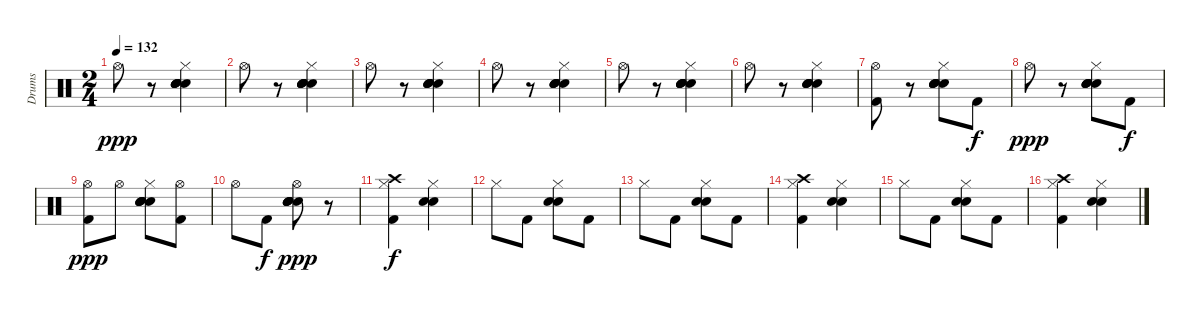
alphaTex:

\track ("Drums" "Drums") {instrument percussion}
\staff {score}
\articulation defaults
\ts (2 4)
\tempo 132
\clef neutral
\ks c "Hi-Hat (open)".8{dy ppp}
r.8 ("Hand Clap (hit)" "Hand Clap (hit)" "Hand Clap (hit)" "Hand Clap (hit)" "Hand Clap (hit)" "Hi-Hat (closed)").4{bd 60} |
"Hi-Hat (open)".8 r.8 ("Hand Clap (hit)" "Hand Clap (hit)" "Hand Clap (hit)" "Hand Clap (hit)" "Hand Clap (hit)" "Hi-Hat (closed)").4{bd 60} |
"Hi-Hat (open)".8 r.8 ("Hand Clap (hit)" "Hand Clap (hit)" "Hand Clap (hit)" "Hand Clap (hit)" "Hand Clap (hit)" "Hi-Hat (closed)").4{bd 60} |
"Hi-Hat (open)".8 r.8 ("Hand Clap (hit)" "Hand Clap (hit)" "Hand Clap (hit)" "Hand Clap (hit)" "Hand Clap (hit)" "Hi-Hat (closed)").4{bd 60} |
"Hi-Hat (open)".8 r.8 ("Hand Clap (hit)" "Hand Clap (hit)" "Hand Clap (hit)" "Hand Clap (hit)" "Hand Clap (hit)" "Hi-Hat (closed)").4{bd 60} |
"Hi-Hat (open)".8 r.8 ("Hand Clap (hit)" "Hand Clap (hit)" "Hand Clap (hit)" "Hand Clap (hit)" "Hand Clap (hit)" "Hi-Hat (closed)").4{bd 60} |
("Kick (hit) 2" "Hi-Hat (open)").8 r.8 ("Hand Clap (hit)" "Hand Clap (hit)" "Hand Clap (hit)" "Hand Clap (hit)" "Hand Clap (hit)" "Hi-Hat (closed)").8{bd 60} "Kick (hit) 2".8{dy f} |
"Hi-Hat (open)".8{dy ppp} r.8 ("Hand Clap (hit)" "Hand Clap (hit)" "Hand Clap (hit)" "Hand Clap (hit)" "Hand Clap (hit)" "Hi-Hat (closed)").8{bd 60} "Kick (hit) 2".8{dy f} |
("Kick (hit) 2" "Hi-Hat (open)").8{dy ppp} "Hi-Hat (open)".8 ("Hand Clap (hit)" "Hand Clap (hit)" "Hand Clap (hit)" "Hand Clap (hit)" "Hand Clap (hit)" "Hi-Hat (closed)").8{bd 60} ("Kick (hit) 2" "Hi-Hat (open)").8 |
"Hi-Hat (open)".8 "Kick (hit) 2".8{dy f} ("Hand Clap (hit)" "Electric Snare (hit)" "Electric Snare (hit)" "Electric Snare (hit)" "Hand Clap (hit)" "Hi-Hat (open)").8{bd 120 dy ppp volume 12} r.8 |
("Kick (hit) 2" "Crash high (hit)" "Hi-Hat (closed)").4{dy f} ("Electric Snare (hit)" "Electric Snare (hit)" "Hi-Hat (closed)").4 |
"Hi-Hat (closed)".8 "Kick (hit) 2".8 ("Electric Snare (hit)" "Electric Snare (hit)" "Hi-Hat (closed)").8 "Kick (hit) 2".8 |
"Hi-Hat (closed)".8 "Kick (hit) 2".8 ("Electric Snare (hit)" "Electric Snare (hit)" "Hi-Hat (closed)").8 "Kick (hit) 2".8 |
("Kick (hit) 2" "Crash high (hit)" "Hi-Hat (closed)").4 ("Electric Snare (hit)" "Electric Snare (hit)" "Hi-Hat (closed)").4 |
"Hi-Hat (closed)".8 "Kick (hit) 2".8 ("Electric Snare (hit)" "Electric Snare (hit)" "Hi-Hat (closed)").8 "Kick (hit) 2".8 |
("Kick (hit) 2" "Crash high (hit)" "Hi-Hat (closed)").4 ("Electric Snare (hit)" "Electric Snare (hit)" "Hi-Hat (closed)").4
